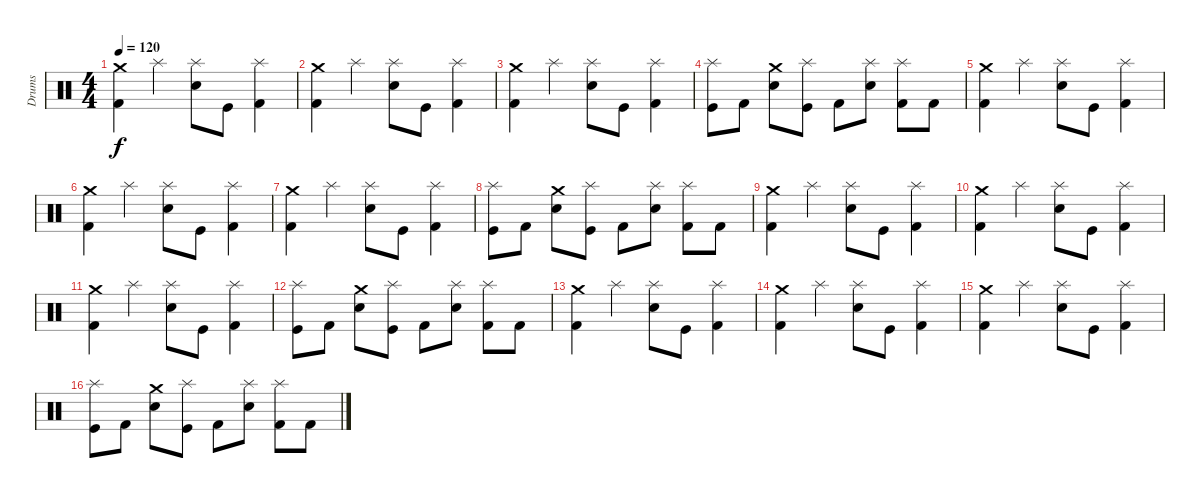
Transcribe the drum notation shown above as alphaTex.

\track ("Drums" "Drums") {instrument percussion}
\staff {score}
\articulation defaults
\ts (4 4)
\tempo 120
\clef neutral
\ks c
("Crash medium (hit)" "Kick (hit) 2").4{dy f} "Splash (hit)".4 ("Splash (hit)" "Snare (hit) 2").8 "Kick (hit)".8 ("Splash (hit)" "Kick (hit) 2").4 |
("Crash medium (hit)" "Kick (hit) 2").4 "Splash (hit)".4 ("Splash (hit)" "Snare (hit) 2").8 "Kick (hit)".8 ("Splash (hit)" "Kick (hit) 2").4 |
("Crash medium (hit)" "Kick (hit) 2").4 "Splash (hit)".4 ("Splash (hit)" "Snare (hit) 2").8 "Kick (hit)".8 ("Splash (hit)" "Kick (hit) 2").4 |
("Splash (hit)" "Kick (hit)").8 "Kick (hit) 2".8 ("Crash medium (hit)" "Snare (hit) 2").8 ("Splash (hit)" "Kick (hit)").8 "Kick (hit) 2".8 ("Splash (hit)" "Snare (hit) 2").8 ("Splash (hit)" "Kick (hit) 2").8 "Kick (hit) 2".8 |
("Crash medium (hit)" "Kick (hit) 2").4 "Splash (hit)".4 ("Splash (hit)" "Snare (hit) 2").8 "Kick (hit)".8 ("Splash (hit)" "Kick (hit) 2").4 |
("Crash medium (hit)" "Kick (hit) 2").4 "Splash (hit)".4 ("Splash (hit)" "Snare (hit) 2").8 "Kick (hit)".8 ("Splash (hit)" "Kick (hit) 2").4 |
("Crash medium (hit)" "Kick (hit) 2").4 "Splash (hit)".4 ("Splash (hit)" "Snare (hit) 2").8 "Kick (hit)".8 ("Splash (hit)" "Kick (hit) 2").4 |
("Splash (hit)" "Kick (hit)").8 "Kick (hit) 2".8 ("Crash medium (hit)" "Snare (hit) 2").8 ("Splash (hit)" "Kick (hit)").8 "Kick (hit) 2".8 ("Splash (hit)" "Snare (hit) 2").8 ("Splash (hit)" "Kick (hit) 2").8 "Kick (hit) 2".8 |
("Crash medium (hit)" "Kick (hit) 2").4 "Splash (hit)".4 ("Splash (hit)" "Snare (hit) 2").8 "Kick (hit)".8 ("Splash (hit)" "Kick (hit) 2").4 |
("Crash medium (hit)" "Kick (hit) 2").4 "Splash (hit)".4 ("Splash (hit)" "Snare (hit) 2").8 "Kick (hit)".8 ("Splash (hit)" "Kick (hit) 2").4 |
("Crash medium (hit)" "Kick (hit) 2").4 "Splash (hit)".4 ("Splash (hit)" "Snare (hit) 2").8 "Kick (hit)".8 ("Splash (hit)" "Kick (hit) 2").4 |
("Splash (hit)" "Kick (hit)").8 "Kick (hit) 2".8 ("Crash medium (hit)" "Snare (hit) 2").8 ("Splash (hit)" "Kick (hit)").8 "Kick (hit) 2".8 ("Splash (hit)" "Snare (hit) 2").8 ("Splash (hit)" "Kick (hit) 2").8 "Kick (hit) 2".8 |
("Crash medium (hit)" "Kick (hit) 2").4 "Splash (hit)".4 ("Splash (hit)" "Snare (hit) 2").8 "Kick (hit)".8 ("Splash (hit)" "Kick (hit) 2").4 |
("Crash medium (hit)" "Kick (hit) 2").4 "Splash (hit)".4 ("Splash (hit)" "Snare (hit) 2").8 "Kick (hit)".8 ("Splash (hit)" "Kick (hit) 2").4 |
("Crash medium (hit)" "Kick (hit) 2").4 "Splash (hit)".4 ("Splash (hit)" "Snare (hit) 2").8 "Kick (hit)".8 ("Splash (hit)" "Kick (hit) 2").4 |
("Splash (hit)" "Kick (hit)").8 "Kick (hit) 2".8 ("Crash medium (hit)" "Snare (hit) 2").8 ("Splash (hit)" "Kick (hit)").8 "Kick (hit) 2".8 ("Splash (hit)" "Snare (hit) 2").8 ("Splash (hit)" "Kick (hit) 2").8 "Kick (hit) 2".8
